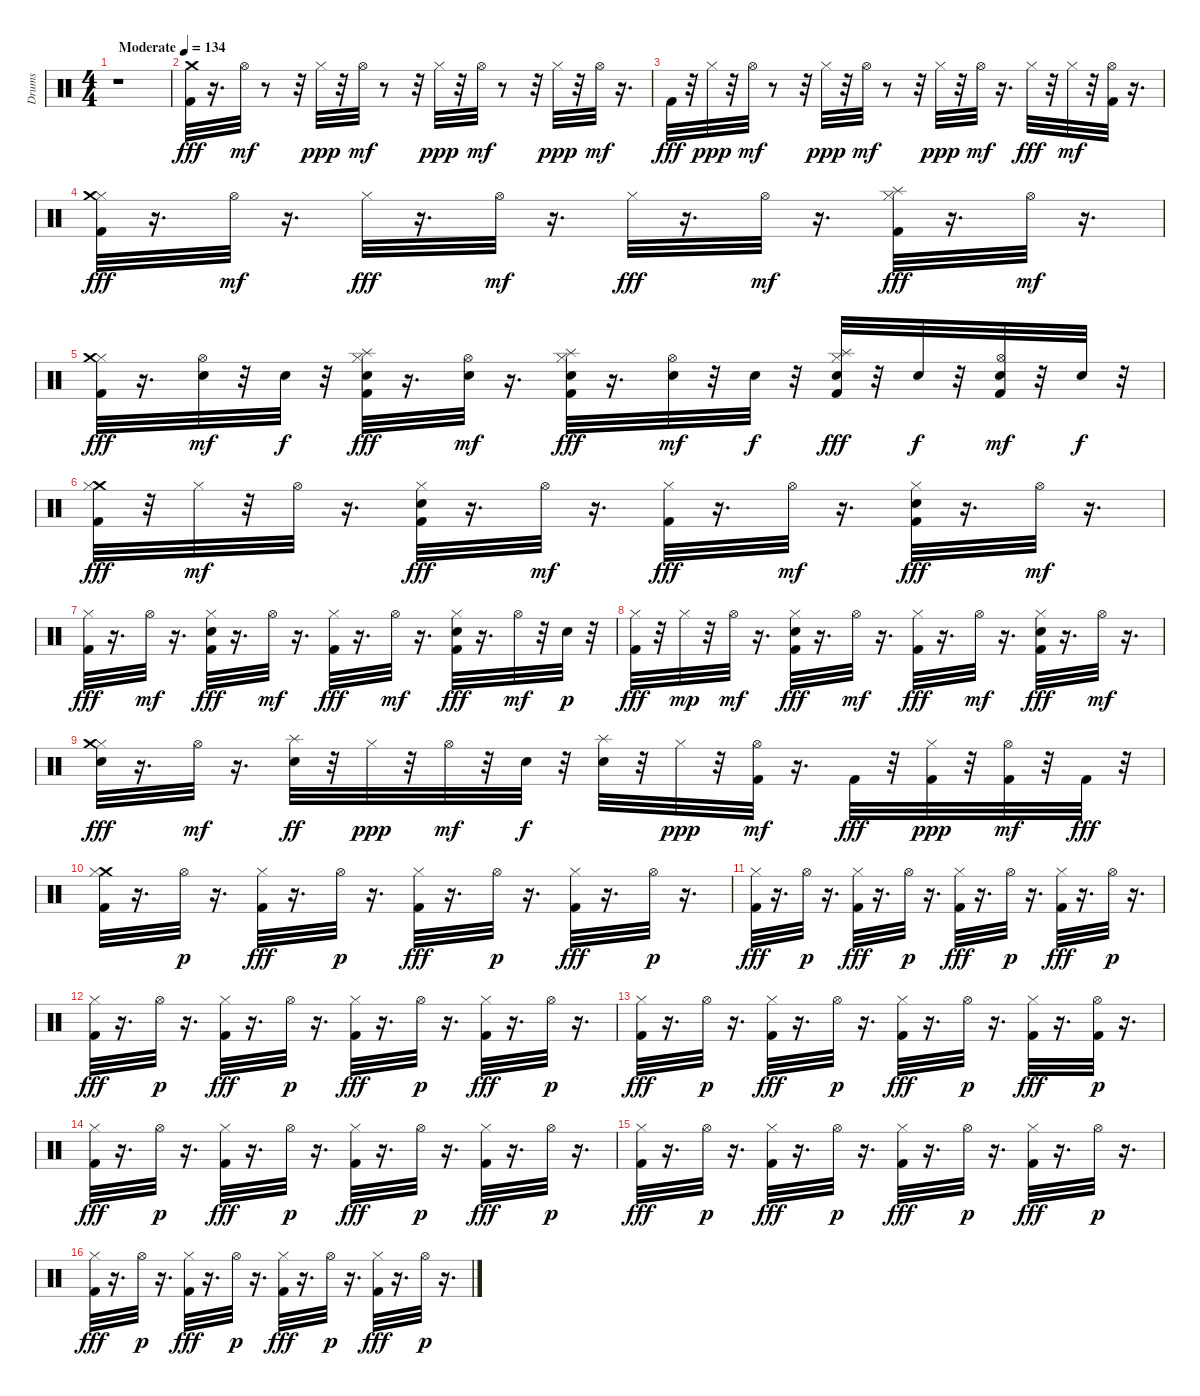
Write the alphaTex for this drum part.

\track ("Drums" "Drums") {instrument percussion}
\staff {score}
\articulation defaults
\ts (4 4)
\tempo (134 "Moderate")
\clef neutral
\ks c
r.1{dy fff} |
("Kick (hit) 2" "Crash medium (hit)").32 r.16{d} "Hi-Hat (open)".32{dy mf} r.8 r.32 "Hi-Hat (closed)".32{dy ppp} r.32 "Hi-Hat (open)".32{dy mf} r.8 r.32 "Hi-Hat (closed)".32{dy ppp} r.32 "Hi-Hat (open)".32{dy mf} r.8 r.32 "Hi-Hat (closed)".32{dy ppp} r.32 "Hi-Hat (open)".32{dy mf} r.16{d} |
"Kick (hit) 2".32{dy fff} r.32 "Hi-Hat (closed)".32{dy ppp} r.32 "Hi-Hat (open)".32{dy mf} r.8 r.32 "Hi-Hat (closed)".32{dy ppp} r.32 "Hi-Hat (open)".32{dy mf} r.8 r.32 "Hi-Hat (closed)".32{dy ppp} r.32 "Hi-Hat (open)".32{dy mf} r.16{d} "Hi-Hat (closed)".32{dy fff} r.32 "Hi-Hat (closed)".32{dy mf} r.32 ("Kick (hit) 2" "Hi-Hat (open)").32 r.16{d} |
("Kick (hit) 2" "Hi-Hat (closed)" "Crash medium (hit)").32{dy fff} r.16{d} "Hi-Hat (open)".32{dy mf} r.16{d} "Hi-Hat (closed)".32{dy fff} r.16{d} "Hi-Hat (open)".32{dy mf} r.16{d} "Hi-Hat (closed)".32{dy fff} r.16{d} "Hi-Hat (open)".32{dy mf} r.16{d} ("Kick (hit) 2" "Hi-Hat (closed)" "Splash (hit)").32{dy fff} r.16{d} "Hi-Hat (open)".32{dy mf} r.16{d} |
("Kick (hit) 2" "Hi-Hat (closed)" "Crash medium (hit)").32{dy fff} r.16{d} ("Electric Snare (hit)" "Hi-Hat (open)").32{dy mf} r.32 "Electric Snare (hit)".32{dy f} r.32 ("Electric Snare (hit)" "Kick (hit) 2" "Hi-Hat (closed)" "Splash (hit)").32{dy fff} r.16{d} ("Electric Snare (hit)" "Hi-Hat (open)").32{dy mf} r.16{d} ("Electric Snare (hit)" "Kick (hit) 2" "Hi-Hat (closed)" "Splash (hit)").32{dy fff} r.16{d} ("Electric Snare (hit)" "Hi-Hat (open)").32{dy mf} r.32 "Electric Snare (hit)".32{dy f} r.32 ("Electric Snare (hit)" "Kick (hit) 2" "Hi-Hat (closed)" "Splash (hit)").32{dy fff} r.32 "Electric Snare (hit)".32{dy f} r.32 ("Electric Snare (hit)" "Kick (hit) 2" "Hi-Hat (open)").32{dy mf} r.32 "Electric Snare (hit)".32{dy f} r.32 |
("Crash medium (hit)" "Kick (hit) 2" "Hi-Hat (closed)").32{dy fff} r.32 "Hi-Hat (closed)".32{dy mf} r.32 "Hi-Hat (open)".32 r.16{d} ("Electric Snare (hit)" "Kick (hit) 2" "Hi-Hat (closed)").32{dy fff} r.16{d} "Hi-Hat (open)".32{dy mf} r.16{d} ("Kick (hit) 2" "Hi-Hat (closed)").32{dy fff} r.16{d} "Hi-Hat (open)".32{dy mf} r.16{d} ("Electric Snare (hit)" "Kick (hit) 2" "Hi-Hat (closed)").32{dy fff} r.16{d} "Hi-Hat (open)".32{dy mf} r.16{d} |
("Kick (hit) 2" "Hi-Hat (closed)").32{dy fff} r.16{d} "Hi-Hat (open)".32{dy mf} r.16{d} ("Electric Snare (hit)" "Kick (hit) 2" "Hi-Hat (closed)").32{dy fff} r.16{d} "Hi-Hat (open)".32{dy mf} r.16{d} ("Kick (hit) 2" "Hi-Hat (closed)").32{dy fff} r.16{d} "Hi-Hat (open)".32{dy mf} r.16{d} ("Electric Snare (hit)" "Kick (hit) 2" "Hi-Hat (closed)").32{dy fff} r.16{d} "Hi-Hat (open)".32{dy mf} r.32 "Electric Snare (hit)".32{dy p} r.32 |
("Kick (hit) 2" "Hi-Hat (closed)").32{dy fff} r.32 "Hi-Hat (closed)".32{dy mp} r.32 "Hi-Hat (open)".32{dy mf} r.16{d} ("Electric Snare (hit)" "Kick (hit) 2" "Hi-Hat (closed)").32{dy fff} r.16{d} "Hi-Hat (open)".32{dy mf} r.16{d} ("Kick (hit) 2" "Hi-Hat (closed)").32{dy fff} r.16{d} "Hi-Hat (open)".32{dy mf} r.16{d} ("Electric Snare (hit)" "Kick (hit) 2" "Hi-Hat (closed)").32{dy fff} r.16{d} "Hi-Hat (open)".32{dy mf} r.16{d} |
("Electric Snare (hit)" "Hi-Hat (closed)" "Crash medium (hit)").32{dy fff} r.16{d} "Hi-Hat (open)".32{dy mf} r.16{d} ("Electric Snare (hit)" "Splash (hit)").32{dy ff} r.32 "Hi-Hat (closed)".32{dy ppp} r.32 "Hi-Hat (open)".32{dy mf} r.32 "Electric Snare (hit)".32{dy f} r.32 ("Electric Snare (hit)" "Splash (hit)").32 r.32 "Hi-Hat (closed)".32{dy ppp} r.32 ("Kick (hit) 2" "Hi-Hat (open)").32{dy mf} r.16{d} "Kick (hit) 2".32{dy fff} r.32 ("Kick (hit) 2" "Hi-Hat (closed)").32{dy ppp} r.32 ("Kick (hit) 2" "Hi-Hat (open)").32{dy mf} r.32 "Kick (hit) 2".32{dy fff} r.32 |
("Crash medium (hit)" "Kick (hit) 2" "Hi-Hat (closed)").32 r.16{d} "Hi-Hat (open)".32{dy p} r.16{d} ("Kick (hit) 2" "Hi-Hat (closed)").32{dy fff} r.16{d} "Hi-Hat (open)".32{dy p} r.16{d} ("Kick (hit) 2" "Hi-Hat (closed)").32{dy fff} r.16{d} "Hi-Hat (open)".32{dy p} r.16{d} ("Kick (hit) 2" "Hi-Hat (closed)").32{dy fff} r.16{d} "Hi-Hat (open)".32{dy p} r.16{d} |
("Kick (hit) 2" "Hi-Hat (closed)").32{dy fff} r.16{d} "Hi-Hat (open)".32{dy p} r.16{d} ("Kick (hit) 2" "Hi-Hat (closed)").32{dy fff} r.16{d} "Hi-Hat (open)".32{dy p} r.16{d} ("Kick (hit) 2" "Hi-Hat (closed)").32{dy fff} r.16{d} "Hi-Hat (open)".32{dy p} r.16{d} ("Kick (hit) 2" "Hi-Hat (closed)").32{dy fff} r.16{d} "Hi-Hat (open)".32{dy p} r.16{d} |
("Kick (hit) 2" "Hi-Hat (closed)").32{dy fff} r.16{d} "Hi-Hat (open)".32{dy p} r.16{d} ("Kick (hit) 2" "Hi-Hat (closed)").32{dy fff} r.16{d} "Hi-Hat (open)".32{dy p} r.16{d} ("Kick (hit) 2" "Hi-Hat (closed)").32{dy fff} r.16{d} "Hi-Hat (open)".32{dy p} r.16{d} ("Kick (hit) 2" "Hi-Hat (closed)").32{dy fff} r.16{d} "Hi-Hat (open)".32{dy p} r.16{d} |
("Kick (hit) 2" "Hi-Hat (closed)").32{dy fff} r.16{d} "Hi-Hat (open)".32{dy p} r.16{d} ("Kick (hit) 2" "Hi-Hat (closed)").32{dy fff} r.16{d} "Hi-Hat (open)".32{dy p} r.16{d} ("Kick (hit) 2" "Hi-Hat (closed)").32{dy fff} r.16{d} "Hi-Hat (open)".32{dy p} r.16{d} ("Kick (hit) 2" "Hi-Hat (closed)").32{dy fff} r.16{d} ("Kick (hit) 2" "Hi-Hat (open)").32{dy p} r.16{d} |
("Kick (hit) 2" "Hi-Hat (closed)").32{dy fff} r.16{d} "Hi-Hat (open)".32{dy p} r.16{d} ("Kick (hit) 2" "Hi-Hat (closed)").32{dy fff} r.16{d} "Hi-Hat (open)".32{dy p} r.16{d} ("Kick (hit) 2" "Hi-Hat (closed)").32{dy fff} r.16{d} "Hi-Hat (open)".32{dy p} r.16{d} ("Kick (hit) 2" "Hi-Hat (closed)").32{dy fff} r.16{d} "Hi-Hat (open)".32{dy p} r.16{d} |
("Kick (hit) 2" "Hi-Hat (closed)").32{dy fff} r.16{d} "Hi-Hat (open)".32{dy p} r.16{d} ("Kick (hit) 2" "Hi-Hat (closed)").32{dy fff} r.16{d} "Hi-Hat (open)".32{dy p} r.16{d} ("Kick (hit) 2" "Hi-Hat (closed)").32{dy fff} r.16{d} "Hi-Hat (open)".32{dy p} r.16{d} ("Kick (hit) 2" "Hi-Hat (closed)").32{dy fff} r.16{d} "Hi-Hat (open)".32{dy p} r.16{d} |
("Kick (hit) 2" "Hi-Hat (closed)").32{dy fff} r.16{d} "Hi-Hat (open)".32{dy p} r.16{d} ("Kick (hit) 2" "Hi-Hat (closed)").32{dy fff} r.16{d} "Hi-Hat (open)".32{dy p} r.16{d} ("Kick (hit) 2" "Hi-Hat (closed)").32{dy fff} r.16{d} "Hi-Hat (open)".32{dy p} r.16{d} ("Kick (hit) 2" "Hi-Hat (closed)").32{dy fff} r.16{d} "Hi-Hat (open)".32{dy p} r.16{d}
